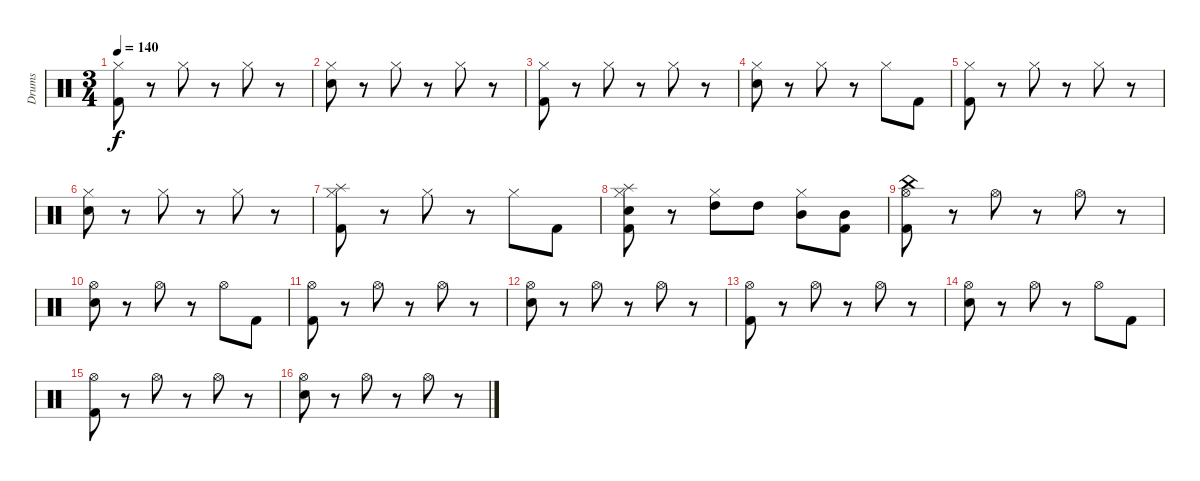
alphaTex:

\track ("Drums" "Drums") {instrument percussion}
\staff {score}
\articulation defaults
\ts (3 4)
\tempo 140
\clef neutral
\ks c
("Hi-Hat (closed)" "Kick (hit) 2").8{dy f} r.8 "Hi-Hat (closed)".8 r.8 "Hi-Hat (closed)".8 r.8 |
("Hi-Hat (closed)" "Snare (hit) 2").8 r.8 "Hi-Hat (closed)".8 r.8 "Hi-Hat (closed)".8 r.8 |
("Hi-Hat (closed)" "Kick (hit) 2").8 r.8 "Hi-Hat (closed)".8 r.8 "Hi-Hat (closed)".8 r.8 |
("Hi-Hat (closed)" "Snare (hit) 2").8 r.8 "Hi-Hat (closed)".8 r.8 "Hi-Hat (closed)".8 "Kick (hit) 2".8 |
("Hi-Hat (closed)" "Kick (hit) 2").8 r.8 "Hi-Hat (closed)".8 r.8 "Hi-Hat (closed)".8 r.8 |
("Hi-Hat (closed)" "Snare (hit) 2").8 r.8 "Hi-Hat (closed)".8 r.8 "Hi-Hat (closed)".8 r.8 |
("Splash (hit)" "Hi-Hat (closed)" "Kick (hit) 2").8 r.8 "Hi-Hat (closed)".8 r.8 "Hi-Hat (closed)".8 "Kick (hit) 2".8 |
("Splash (hit)" "Hi-Hat (closed)" "Snare (hit) 2" "Kick (hit) 2").8 r.8 ("Hi-Hat (closed)" "High Tom (hit)").8 "High Tom (hit)".8 ("Hi-Hat (closed)" "Mid Tom (hit)").8 ("Mid Tom (hit)" "Kick (hit) 2").8 |
("China (hit)" "Hi-Hat (open)" "Kick (hit) 2").8 r.8 "Hi-Hat (open)".8 r.8 "Hi-Hat (open)".8 r.8 |
("Hi-Hat (open)" "Snare (hit) 2").8 r.8 "Hi-Hat (open)".8 r.8 "Hi-Hat (open)".8 "Kick (hit) 2".8 |
("Hi-Hat (open)" "Kick (hit) 2").8 r.8 "Hi-Hat (open)".8 r.8 "Hi-Hat (open)".8 r.8 |
("Hi-Hat (open)" "Snare (hit) 2").8 r.8 "Hi-Hat (open)".8 r.8 "Hi-Hat (open)".8 r.8 |
("Hi-Hat (open)" "Kick (hit) 2").8 r.8 "Hi-Hat (open)".8 r.8 "Hi-Hat (open)".8 r.8 |
("Hi-Hat (open)" "Snare (hit) 2").8 r.8 "Hi-Hat (open)".8 r.8 "Hi-Hat (open)".8 "Kick (hit) 2".8 |
("Hi-Hat (open)" "Kick (hit) 2").8 r.8 "Hi-Hat (open)".8 r.8 "Hi-Hat (open)".8 r.8 |
("Hi-Hat (open)" "Snare (hit) 2").8 r.8 "Hi-Hat (open)".8 r.8 "Hi-Hat (open)".8 r.8
